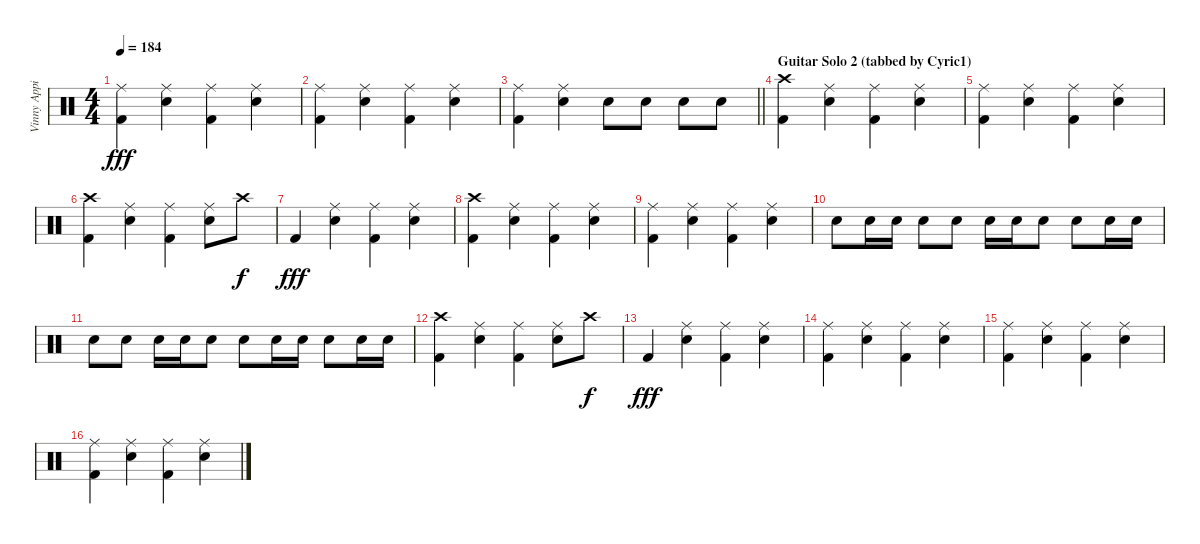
\track ("Vinny Appice" "Vinny Appi") {instrument percussion}
\staff {score}
\articulation defaults
\ts (4 4)
\tempo 184
\clef neutral
\ks c
("Ride (middle)" "Kick (hit) 2").4{dy fff} ("Ride (middle)" "Snare (hit) 2").4 ("Ride (middle)" "Kick (hit) 2").4 ("Ride (middle)" "Snare (hit) 2").4 |
("Ride (middle)" "Kick (hit) 2").4 ("Ride (middle)" "Snare (hit) 2").4 ("Ride (middle)" "Kick (hit) 2").4 ("Ride (middle)" "Snare (hit) 2").4 |
\barLineRight lightlight
("Ride (middle)" "Kick (hit) 2").4 ("Ride (middle)" "Snare (hit) 2").4 "Snare (hit) 2".8 "Snare (hit) 2".8 "Snare (hit) 2".8 "Snare (hit) 2".8 |
\section ("" "Guitar Solo 2 (tabbed by Cyric1)")
("Crash high (hit)" "Kick (hit) 2").4 ("Ride (middle)" "Snare (hit) 2").4 ("Ride (middle)" "Kick (hit) 2").4 ("Ride (middle)" "Snare (hit) 2").4 |
("Ride (middle)" "Kick (hit) 2").4 ("Ride (middle)" "Snare (hit) 2").4 ("Ride (middle)" "Kick (hit) 2").4 ("Ride (middle)" "Snare (hit) 2").4 |
("Crash high (hit)" "Kick (hit) 2").4 ("Ride (middle)" "Snare (hit) 2").4 ("Ride (middle)" "Kick (hit) 2").4 ("Ride (middle)" "Snare (hit) 2").8 "Crash high (hit)".8{dy f} |
"Kick (hit) 2".4{dy fff} ("Ride (middle)" "Snare (hit) 2").4 ("Ride (middle)" "Kick (hit) 2").4 ("Ride (middle)" "Snare (hit) 2").4 |
("Crash high (hit)" "Kick (hit) 2").4 ("Ride (middle)" "Snare (hit) 2").4 ("Ride (middle)" "Kick (hit) 2").4 ("Ride (middle)" "Snare (hit) 2").4 |
("Ride (middle)" "Kick (hit) 2").4 ("Ride (middle)" "Snare (hit) 2").4 ("Ride (middle)" "Kick (hit) 2").4 ("Ride (middle)" "Snare (hit) 2").4 |
"Snare (hit) 2".8 "Snare (hit) 2".16 "Snare (hit) 2".16 "Snare (hit) 2".8 "Snare (hit) 2".8 "Snare (hit) 2".16 "Snare (hit) 2".16 "Snare (hit) 2".8 "Snare (hit) 2".8 "Snare (hit) 2".16 "Snare (hit) 2".16 |
"Snare (hit) 2".8 "Snare (hit) 2".8 "Snare (hit) 2".16 "Snare (hit) 2".16 "Snare (hit) 2".8 "Snare (hit) 2".8 "Snare (hit) 2".16 "Snare (hit) 2".16 "Snare (hit) 2".8 "Snare (hit) 2".16 "Snare (hit) 2".16 |
("Crash high (hit)" "Kick (hit) 2").4 ("Ride (middle)" "Snare (hit) 2").4 ("Ride (middle)" "Kick (hit) 2").4 ("Ride (middle)" "Snare (hit) 2").8 "Crash high (hit)".8{dy f} |
"Kick (hit) 2".4{dy fff} ("Ride (middle)" "Snare (hit) 2").4 ("Ride (middle)" "Kick (hit) 2").4 ("Ride (middle)" "Snare (hit) 2").4 |
("Ride (middle)" "Kick (hit) 2").4 ("Ride (middle)" "Snare (hit) 2").4 ("Ride (middle)" "Kick (hit) 2").4 ("Ride (middle)" "Snare (hit) 2").4 |
("Ride (middle)" "Kick (hit) 2").4 ("Ride (middle)" "Snare (hit) 2").4 ("Ride (middle)" "Kick (hit) 2").4 ("Ride (middle)" "Snare (hit) 2").4 |
("Ride (middle)" "Kick (hit) 2").4 ("Ride (middle)" "Snare (hit) 2").4 ("Ride (middle)" "Kick (hit) 2").4 ("Ride (middle)" "Snare (hit) 2").4
